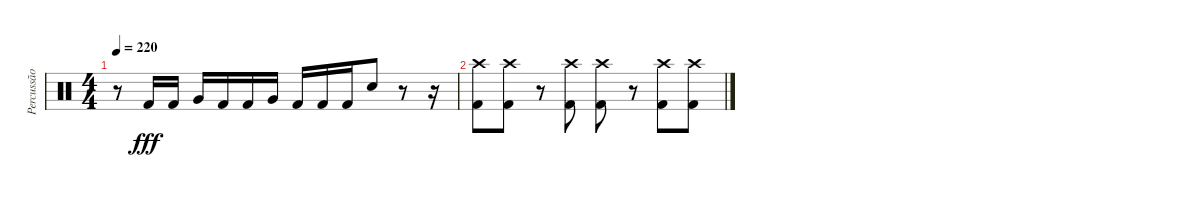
\track ("Percussão" "Percussão") {instrument percussion}
\staff {score}
\articulation defaults
\ts (4 4)
\tempo 220
\clef neutral
\ks c
r.8{dy fff} "Kick (hit) 2".16 "Kick (hit) 2".16 "Very Low Tom (hit)".16 "Kick (hit) 2".16 "Kick (hit) 2".16 "Very Low Tom (hit)".16 "Kick (hit) 2".16 "Kick (hit) 2".16 "Kick (hit) 2".16 "Electric Snare (hit)".8 r.8 r.16 |
("Crash high (hit)" "Kick (hit) 2").8 ("Crash high (hit)" "Kick (hit) 2").8 r.8 ("Crash high (hit)" "Kick (hit) 2").8 ("Crash high (hit)" "Kick (hit) 2").8 r.8 ("Crash high (hit)" "Kick (hit) 2").8 ("Crash high (hit)" "Kick (hit) 2").8
